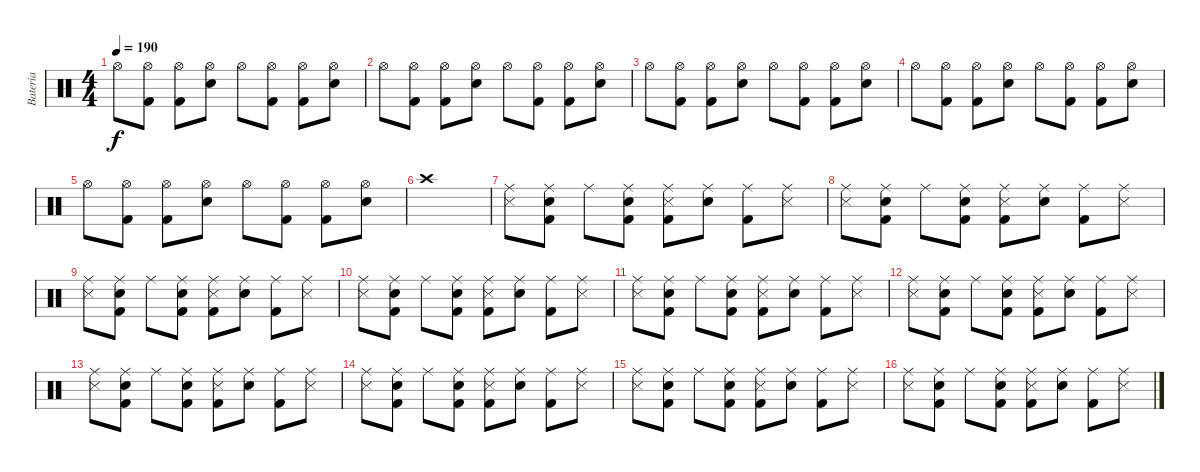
\track ("Bateria" "Bateria") {instrument percussion}
\staff {score}
\articulation defaults
\ts (4 4)
\tempo 190
\clef neutral
\ks c "Hi-Hat (open)".8{dy f}
("Hi-Hat (open)" "Kick (hit) 2").8 ("Hi-Hat (open)" "Kick (hit) 2").8 ("Hi-Hat (open)" "Electric Snare (hit)").8 "Hi-Hat (open)".8 ("Hi-Hat (open)" "Kick (hit) 2").8 ("Hi-Hat (open)" "Kick (hit) 2").8 ("Hi-Hat (open)" "Electric Snare (hit)").8 |
"Hi-Hat (open)".8 ("Hi-Hat (open)" "Kick (hit) 2").8 ("Hi-Hat (open)" "Kick (hit) 2").8 ("Hi-Hat (open)" "Electric Snare (hit)").8 "Hi-Hat (open)".8 ("Hi-Hat (open)" "Kick (hit) 2").8 ("Hi-Hat (open)" "Kick (hit) 2").8 ("Hi-Hat (open)" "Electric Snare (hit)").8 |
"Hi-Hat (open)".8 ("Hi-Hat (open)" "Kick (hit) 2").8 ("Hi-Hat (open)" "Kick (hit) 2").8 ("Hi-Hat (open)" "Electric Snare (hit)").8 "Hi-Hat (open)".8 ("Hi-Hat (open)" "Kick (hit) 2").8 ("Hi-Hat (open)" "Kick (hit) 2").8 ("Hi-Hat (open)" "Electric Snare (hit)").8 |
"Hi-Hat (open)".8 ("Hi-Hat (open)" "Kick (hit) 2").8 ("Hi-Hat (open)" "Kick (hit) 2").8 ("Hi-Hat (open)" "Electric Snare (hit)").8 "Hi-Hat (open)".8 ("Hi-Hat (open)" "Kick (hit) 2").8 ("Hi-Hat (open)" "Kick (hit) 2").8 ("Hi-Hat (open)" "Electric Snare (hit)").8 |
"Hi-Hat (open)".8 ("Hi-Hat (open)" "Kick (hit) 2").8 ("Hi-Hat (open)" "Kick (hit) 2").8 ("Hi-Hat (open)" "Electric Snare (hit)").8 "Hi-Hat (open)".8 ("Hi-Hat (open)" "Kick (hit) 2").8 ("Hi-Hat (open)" "Kick (hit) 2").8 ("Hi-Hat (open)" "Electric Snare (hit)").8 |
"Crash high (hit)".1 |
("Ride (middle)" "Snare (side stick) 3").8 ("Ride (middle)" "Metronome (bell)" "Kick (hit) 2").8 "Ride (middle)".8 ("Ride (middle)" "Electric Snare (hit)" "Kick (hit) 2").8 ("Ride (middle)" "Snare (side stick) 3" "Kick (hit) 2").8 ("Ride (middle)" "Metronome (bell)").8 ("Ride (middle)" "Kick (hit) 2").8 ("Ride (middle)" "Snare (side stick) 3").8 |
("Ride (middle)" "Snare (side stick) 3").8 ("Ride (middle)" "Metronome (bell)" "Kick (hit) 2").8 "Ride (middle)".8 ("Ride (middle)" "Electric Snare (hit)" "Kick (hit) 2").8 ("Ride (middle)" "Snare (side stick) 3" "Kick (hit) 2").8 ("Ride (middle)" "Metronome (bell)").8 ("Ride (middle)" "Kick (hit) 2").8 ("Ride (middle)" "Snare (side stick) 3").8 |
("Ride (middle)" "Snare (side stick) 3").8 ("Ride (middle)" "Metronome (bell)" "Kick (hit) 2").8 "Ride (middle)".8 ("Ride (middle)" "Electric Snare (hit)" "Kick (hit) 2").8 ("Ride (middle)" "Snare (side stick) 3" "Kick (hit) 2").8 ("Ride (middle)" "Metronome (bell)").8 ("Ride (middle)" "Kick (hit) 2").8 ("Ride (middle)" "Snare (side stick) 3").8 |
("Ride (middle)" "Snare (side stick) 3").8 ("Ride (middle)" "Metronome (bell)" "Kick (hit) 2").8 "Ride (middle)".8 ("Ride (middle)" "Electric Snare (hit)" "Kick (hit) 2").8 ("Ride (middle)" "Snare (side stick) 3" "Kick (hit) 2").8 ("Ride (middle)" "Metronome (bell)").8 ("Ride (middle)" "Kick (hit) 2").8 ("Ride (middle)" "Snare (side stick) 3").8 |
("Ride (middle)" "Snare (side stick) 3").8 ("Ride (middle)" "Metronome (bell)" "Kick (hit) 2").8 "Ride (middle)".8 ("Ride (middle)" "Electric Snare (hit)" "Kick (hit) 2").8 ("Ride (middle)" "Snare (side stick) 3" "Kick (hit) 2").8 ("Ride (middle)" "Metronome (bell)").8 ("Ride (middle)" "Kick (hit) 2").8 ("Ride (middle)" "Snare (side stick) 3").8 |
("Ride (middle)" "Snare (side stick) 3").8 ("Ride (middle)" "Metronome (bell)" "Kick (hit) 2").8 "Ride (middle)".8 ("Ride (middle)" "Electric Snare (hit)" "Kick (hit) 2").8 ("Ride (middle)" "Snare (side stick) 3" "Kick (hit) 2").8 ("Ride (middle)" "Metronome (bell)").8 ("Ride (middle)" "Kick (hit) 2").8 ("Ride (middle)" "Snare (side stick) 3").8 |
("Ride (middle)" "Snare (side stick) 3").8 ("Ride (middle)" "Metronome (bell)" "Kick (hit) 2").8 "Ride (middle)".8 ("Ride (middle)" "Electric Snare (hit)" "Kick (hit) 2").8 ("Ride (middle)" "Snare (side stick) 3" "Kick (hit) 2").8 ("Ride (middle)" "Metronome (bell)").8 ("Ride (middle)" "Kick (hit) 2").8 ("Ride (middle)" "Snare (side stick) 3").8 |
("Ride (middle)" "Snare (side stick) 3").8 ("Ride (middle)" "Metronome (bell)" "Kick (hit) 2").8 "Ride (middle)".8 ("Ride (middle)" "Electric Snare (hit)" "Kick (hit) 2").8 ("Ride (middle)" "Snare (side stick) 3" "Kick (hit) 2").8 ("Ride (middle)" "Metronome (bell)").8 ("Ride (middle)" "Kick (hit) 2").8 ("Ride (middle)" "Snare (side stick) 3").8 |
("Ride (middle)" "Snare (side stick) 3").8 ("Ride (middle)" "Metronome (bell)" "Kick (hit) 2").8 "Ride (middle)".8 ("Ride (middle)" "Electric Snare (hit)" "Kick (hit) 2").8 ("Ride (middle)" "Snare (side stick) 3" "Kick (hit) 2").8 ("Ride (middle)" "Metronome (bell)").8 ("Ride (middle)" "Kick (hit) 2").8 ("Ride (middle)" "Snare (side stick) 3").8 |
("Ride (middle)" "Snare (side stick) 3").8 ("Ride (middle)" "Metronome (bell)" "Kick (hit) 2").8 "Ride (middle)".8 ("Ride (middle)" "Electric Snare (hit)" "Kick (hit) 2").8 ("Ride (middle)" "Snare (side stick) 3" "Kick (hit) 2").8 ("Ride (middle)" "Metronome (bell)").8 ("Ride (middle)" "Kick (hit) 2").8 ("Ride (middle)" "Snare (side stick) 3").8
